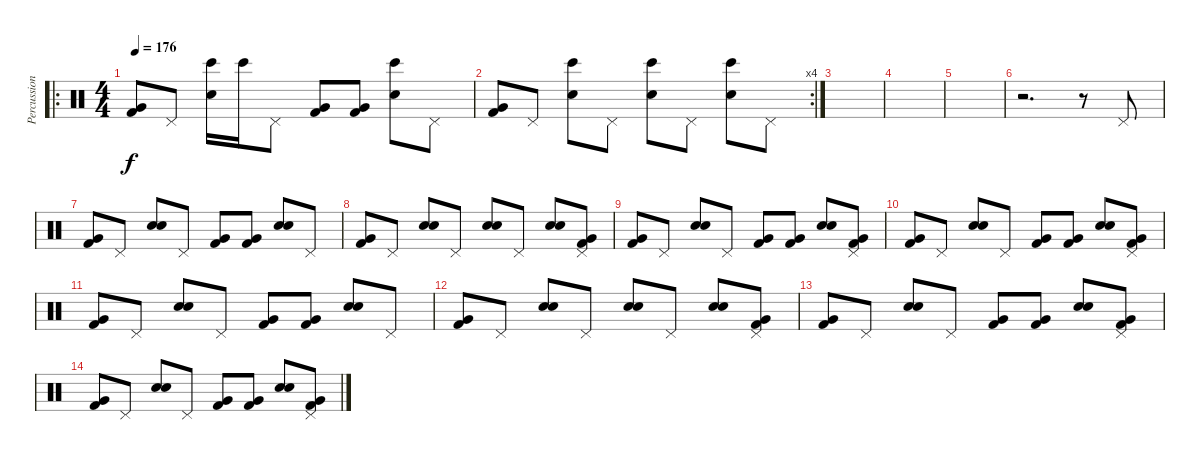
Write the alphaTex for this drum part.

\track ("Percussions" "Percussion") {instrument percussion}
\staff {score}
\articulation defaults
\ro
\ts (4 4)
\tempo 176
\clef neutral
\ks c
("Kick (hit) 2" "Very Low Tom (hit)").8{dy f} "Pedal Hi-Hat (hit)".8 ("Snare (hit) 2" "Bongo High (hit)").16 "Bongo High (hit)".16 "Pedal Hi-Hat (hit)".8 ("Kick (hit) 2" "Very Low Tom (hit)").8 ("Kick (hit) 2" "Very Low Tom (hit)").8 ("Snare (hit) 2" "Bongo High (hit)").8 "Pedal Hi-Hat (hit)".8 |
\rc 4
("Kick (hit) 2" "Very Low Tom (hit)").8 "Pedal Hi-Hat (hit)".8 ("Snare (hit) 2" "Bongo High (hit)").8 "Pedal Hi-Hat (hit)".8 ("Snare (hit) 2" "Bongo High (hit)").8 "Pedal Hi-Hat (hit)".8 ("Snare (hit) 2" "Bongo High (hit)").8 "Pedal Hi-Hat (hit)".8 |
|
|
|
r.2{d} r.8 "Pedal Hi-Hat (hit)".8 |
("Kick (hit) 2" "Very Low Tom (hit)").8 "Pedal Hi-Hat (hit)".8 ("Snare (hit) 2" "Electric Snare (hit)").8 "Pedal Hi-Hat (hit)".8 ("Kick (hit) 2" "Very Low Tom (hit)").8 ("Kick (hit) 2" "Very Low Tom (hit)").8 ("Snare (hit) 2" "Electric Snare (hit)").8 "Pedal Hi-Hat (hit)".8 |
("Kick (hit) 2" "Very Low Tom (hit)").8 "Pedal Hi-Hat (hit)".8 ("Snare (hit) 2" "Electric Snare (hit)").8 "Pedal Hi-Hat (hit)".8 ("Snare (hit) 2" "Electric Snare (hit)").8 "Pedal Hi-Hat (hit)".8 ("Snare (hit) 2" "Electric Snare (hit)").8 ("Pedal Hi-Hat (hit)" "Kick (hit) 2" "Very Low Tom (hit)").8 |
("Kick (hit) 2" "Very Low Tom (hit)").8 "Pedal Hi-Hat (hit)".8 ("Snare (hit) 2" "Electric Snare (hit)").8 "Pedal Hi-Hat (hit)".8 ("Kick (hit) 2" "Very Low Tom (hit)").8 ("Kick (hit) 2" "Very Low Tom (hit)").8 ("Snare (hit) 2" "Electric Snare (hit)").8 ("Pedal Hi-Hat (hit)" "Kick (hit) 2" "Very Low Tom (hit)").8 |
("Kick (hit) 2" "Very Low Tom (hit)").8 "Pedal Hi-Hat (hit)".8 ("Snare (hit) 2" "Electric Snare (hit)").8 "Pedal Hi-Hat (hit)".8 ("Kick (hit) 2" "Very Low Tom (hit)").8 ("Kick (hit) 2" "Very Low Tom (hit)").8 ("Snare (hit) 2" "Electric Snare (hit)").8 ("Pedal Hi-Hat (hit)" "Kick (hit) 2" "Very Low Tom (hit)").8 |
("Kick (hit) 2" "Very Low Tom (hit)").8 "Pedal Hi-Hat (hit)".8 ("Snare (hit) 2" "Electric Snare (hit)").8 "Pedal Hi-Hat (hit)".8 ("Kick (hit) 2" "Very Low Tom (hit)").8 ("Kick (hit) 2" "Very Low Tom (hit)").8 ("Snare (hit) 2" "Electric Snare (hit)").8 "Pedal Hi-Hat (hit)".8 |
("Kick (hit) 2" "Very Low Tom (hit)").8 "Pedal Hi-Hat (hit)".8 ("Snare (hit) 2" "Electric Snare (hit)").8 "Pedal Hi-Hat (hit)".8 ("Snare (hit) 2" "Electric Snare (hit)").8 "Pedal Hi-Hat (hit)".8 ("Snare (hit) 2" "Electric Snare (hit)").8 ("Pedal Hi-Hat (hit)" "Kick (hit) 2" "Very Low Tom (hit)").8 |
("Kick (hit) 2" "Very Low Tom (hit)").8 "Pedal Hi-Hat (hit)".8 ("Snare (hit) 2" "Electric Snare (hit)").8 "Pedal Hi-Hat (hit)".8 ("Kick (hit) 2" "Very Low Tom (hit)").8 ("Kick (hit) 2" "Very Low Tom (hit)").8 ("Snare (hit) 2" "Electric Snare (hit)").8 ("Pedal Hi-Hat (hit)" "Kick (hit) 2" "Very Low Tom (hit)").8 |
("Kick (hit) 2" "Very Low Tom (hit)").8 "Pedal Hi-Hat (hit)".8 ("Snare (hit) 2" "Electric Snare (hit)").8 "Pedal Hi-Hat (hit)".8 ("Kick (hit) 2" "Very Low Tom (hit)").8 ("Kick (hit) 2" "Very Low Tom (hit)").8 ("Snare (hit) 2" "Electric Snare (hit)").8 ("Pedal Hi-Hat (hit)" "Kick (hit) 2" "Very Low Tom (hit)").8
